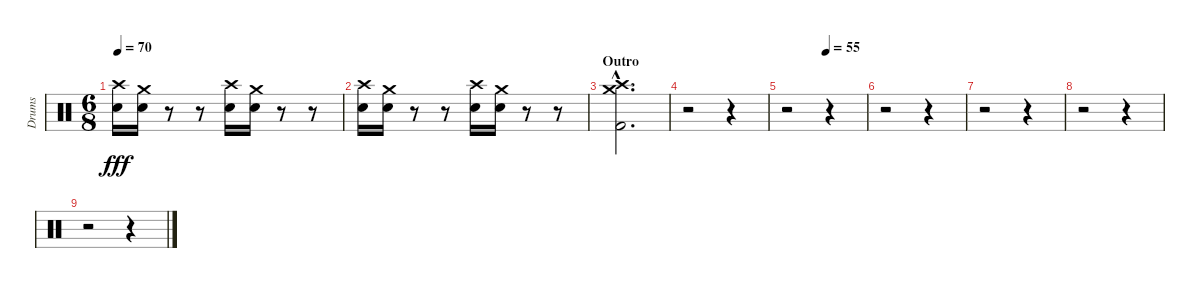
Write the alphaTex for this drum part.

\track ("Drums" "Drums") {instrument percussion}
\staff {score}
\articulation defaults
\ts (6 8)
\tempo 70
\clef neutral
\ks c
("Crash high (hit)" "Electric Snare (hit)").16{dy fff} ("Crash medium (hit)" "Electric Snare (hit)").16 r.8 r.8 ("Crash high (hit)" "Electric Snare (hit)").16 ("Crash medium (hit)" "Electric Snare (hit)").16 r.8 r.8 |
("Crash high (hit)" "Electric Snare (hit)").16 ("Crash medium (hit)" "Electric Snare (hit)").16 r.8 r.8 ("Crash high (hit)" "Electric Snare (hit)").16 ("Crash medium (hit)" "Electric Snare (hit)").16 r.8 r.8 |
\section ("" "Outro")
("Crash high (hit)"{hac} "Crash medium (hit)"{hac} "Kick (hit) 2"{hac}).2{d} |
r.2 r.4 |
\tempo (55 0.5)
r.2 r.4 |
r.2 r.4 |
r.2 r.4 |
r.2 r.4 |
r.2 r.4
